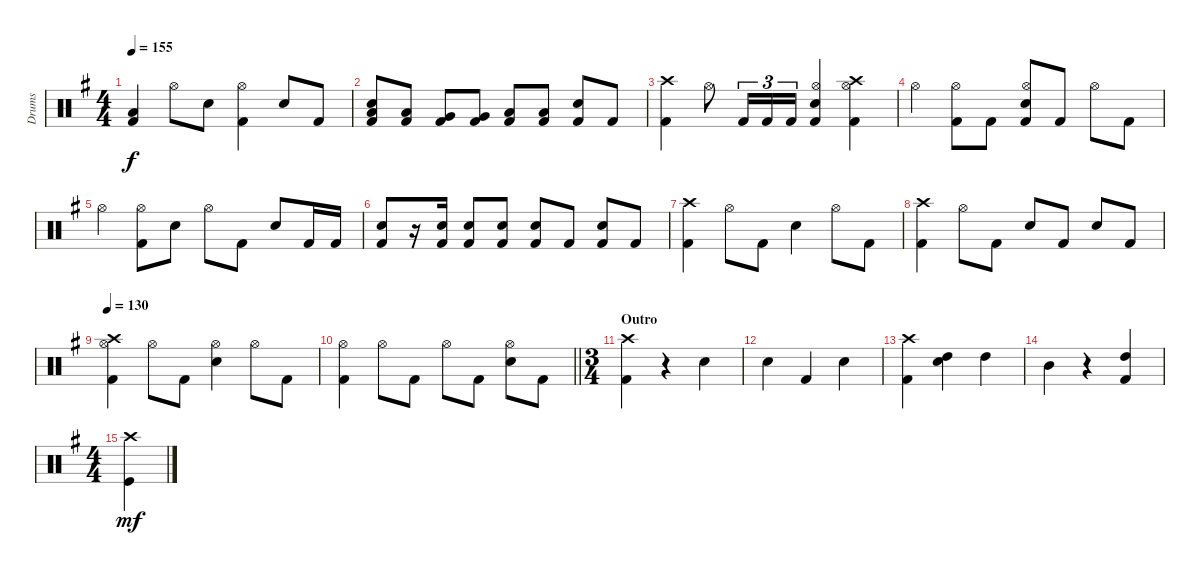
\track ("Drums" "Drums") {instrument percussion}
\staff {score}
\articulation defaults
\ts (4 4)
\tempo 155
\clef neutral
\ks g
("Low Floor Tom (hit)" "Kick (hit) 2").4{dy f} "Hi-Hat (open)".8 "Snare (hit) 2".8 ("Hi-Hat (open)" "Kick (hit) 2").4 "Snare (hit) 2".8 "Kick (hit) 2".8 |
("Snare (hit) 2" "Kick (hit) 2" "Low Tom (hit)").8 ("Kick (hit) 2" "Low Tom (hit)").8 ("Kick (hit) 2" "Very Low Tom (hit)").8 ("Kick (hit) 2" "Very Low Tom (hit)").8 ("Kick (hit) 2" "Low Floor Tom (hit)").8 ("Kick (hit) 2" "Low Floor Tom (hit)").8 ("Snare (hit) 2" "Kick (hit) 2").8 "Kick (hit) 2".8 |
("Crash high (hit)" "Kick (hit) 2").4 "Hi-Hat (open)".8 "Kick (hit) 2".16{tu (3 2)} "Kick (hit) 2".16{tu (3 2)} "Kick (hit) 2".16{tu (3 2)} ("Hi-Hat (open)" "Snare (hit) 2" "Kick (hit) 2").4 ("Crash high (hit)" "Hi-Hat (open)" "Kick (hit) 2").4 |
"Hi-Hat (open)".4 ("Hi-Hat (open)" "Kick (hit) 2").8 "Kick (hit) 2".8 ("Hi-Hat (open)" "Snare (hit) 2" "Kick (hit) 2").8 "Kick (hit) 2".8 "Hi-Hat (open)".8 "Kick (hit) 2".8 |
"Hi-Hat (open)".4 ("Hi-Hat (open)" "Kick (hit) 2").8 "Snare (hit) 2".8 "Hi-Hat (open)".8 "Kick (hit) 2".8 "Snare (hit) 2".8 "Kick (hit) 2".16 "Kick (hit) 2".16 |
("Snare (hit) 2" "Kick (hit) 2").8 r.16 ("Snare (hit) 2" "Kick (hit) 2").16 ("Snare (hit) 2" "Kick (hit) 2").8 ("Snare (hit) 2" "Kick (hit) 2").8 ("Snare (hit) 2" "Kick (hit) 2").8 "Kick (hit) 2".8 ("Snare (hit) 2" "Kick (hit) 2").8 "Kick (hit) 2".8 |
("Crash high (hit)" "Kick (hit) 2").4 "Hi-Hat (open)".8 "Kick (hit) 2".8 "Snare (hit) 2".4 "Hi-Hat (open)".8 "Kick (hit) 2".8 |
("Crash high (hit)" "Kick (hit) 2").4 "Hi-Hat (open)".8 "Kick (hit) 2".8 "Snare (hit) 2".8 "Kick (hit) 2".8 "Snare (hit) 2".8 "Kick (hit) 2".8 |
\tempo 130
("Crash high (hit)" "Hi-Hat (open)" "Kick (hit) 2").4 "Hi-Hat (open)".8 "Kick (hit) 2".8 ("Hi-Hat (open)" "Snare (hit) 2").4 "Hi-Hat (open)".8 "Kick (hit) 2".8 |
\barLineRight lightlight
("Hi-Hat (open)" "Kick (hit) 2").4 "Hi-Hat (open)".8 "Kick (hit) 2".8 "Hi-Hat (open)".8 "Kick (hit) 2".8 ("Hi-Hat (open)" "Snare (hit) 2").8 "Kick (hit) 2".8 |
\ts (3 4)
\section ("" "Outro")
("Crash high (hit)" "Kick (hit) 2").4 r.4 "Snare (hit) 2".4 |
"Snare (hit) 2".4 "Kick (hit) 2".4 "Snare (hit) 2".4 |
("Crash high (hit)" "Kick (hit) 2").4 ("Snare (hit) 2" "High Tom (hit)").4 "High Tom (hit)".4 |
"Mid Tom (hit)".4 r.4 ("High Tom (hit)" "Kick (hit) 2").4 |
\ts (4 4)
("Crash high (hit)" "Kick (hit)").4{dy mf}
